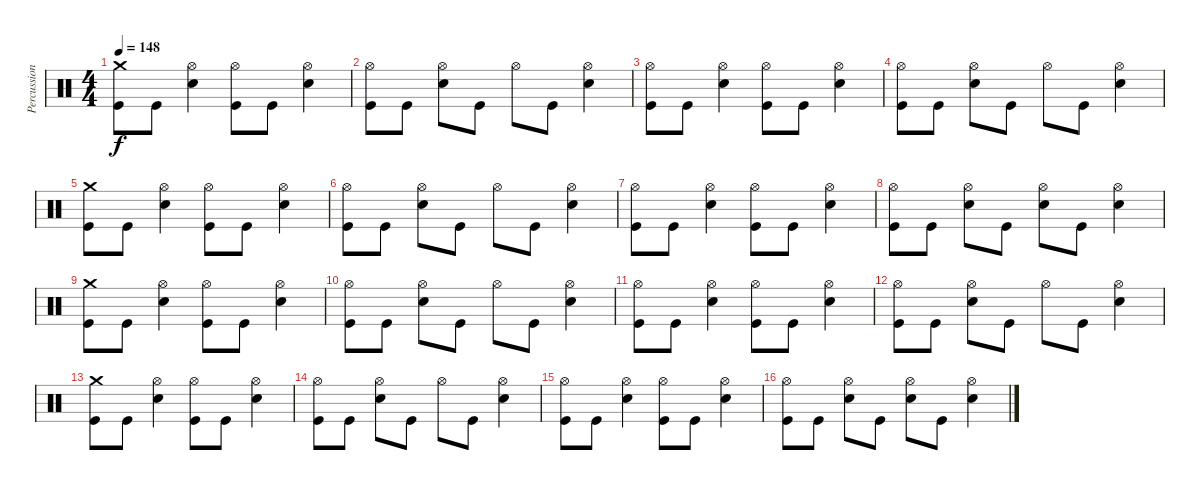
\track ("Percussion" "Percussion") {instrument percussion}
\staff {score}
\articulation defaults
\ts (4 4)
\tempo 148
\clef neutral
\ks c
("Crash medium (hit)" "Kick (hit)").8{dy f} "Kick (hit)".8 ("Hi-Hat (open)" "Electric Snare (hit)").4 ("Hi-Hat (open)" "Kick (hit)").8 "Kick (hit)".8 ("Hi-Hat (open)" "Electric Snare (hit)").4 |
("Hi-Hat (open)" "Kick (hit)").8 "Kick (hit)".8 ("Hi-Hat (open)" "Electric Snare (hit)").8 "Kick (hit)".8 "Hi-Hat (open)".8 "Kick (hit)".8 ("Hi-Hat (open)" "Electric Snare (hit)").4 |
("Hi-Hat (open)" "Kick (hit)").8 "Kick (hit)".8 ("Hi-Hat (open)" "Electric Snare (hit)").4 ("Hi-Hat (open)" "Kick (hit)").8 "Kick (hit)".8 ("Hi-Hat (open)" "Electric Snare (hit)").4 |
("Hi-Hat (open)" "Kick (hit)").8 "Kick (hit)".8 ("Hi-Hat (open)" "Electric Snare (hit)").8 "Kick (hit)".8 "Hi-Hat (open)".8 "Kick (hit)".8 ("Hi-Hat (open)" "Electric Snare (hit)").4 |
("Crash medium (hit)" "Kick (hit)").8 "Kick (hit)".8 ("Hi-Hat (open)" "Electric Snare (hit)").4 ("Hi-Hat (open)" "Kick (hit)").8 "Kick (hit)".8 ("Hi-Hat (open)" "Electric Snare (hit)").4 |
("Hi-Hat (open)" "Kick (hit)").8 "Kick (hit)".8 ("Hi-Hat (open)" "Electric Snare (hit)").8 "Kick (hit)".8 "Hi-Hat (open)".8 "Kick (hit)".8 ("Hi-Hat (open)" "Electric Snare (hit)").4 |
("Hi-Hat (open)" "Kick (hit)").8 "Kick (hit)".8 ("Hi-Hat (open)" "Electric Snare (hit)").4 ("Hi-Hat (open)" "Kick (hit)").8 "Kick (hit)".8 ("Hi-Hat (open)" "Electric Snare (hit)").4 |
("Hi-Hat (open)" "Kick (hit)").8 "Kick (hit)".8 ("Hi-Hat (open)" "Electric Snare (hit)").8 "Kick (hit)".8 ("Hi-Hat (open)" "Electric Snare (hit)").8 "Kick (hit)".8 ("Hi-Hat (open)" "Electric Snare (hit)").4 |
("Crash medium (hit)" "Kick (hit)").8 "Kick (hit)".8 ("Hi-Hat (open)" "Electric Snare (hit)").4 ("Hi-Hat (open)" "Kick (hit)").8 "Kick (hit)".8 ("Hi-Hat (open)" "Electric Snare (hit)").4 |
("Hi-Hat (open)" "Kick (hit)").8 "Kick (hit)".8 ("Hi-Hat (open)" "Electric Snare (hit)").8 "Kick (hit)".8 "Hi-Hat (open)".8 "Kick (hit)".8 ("Hi-Hat (open)" "Electric Snare (hit)").4 |
("Hi-Hat (open)" "Kick (hit)").8 "Kick (hit)".8 ("Hi-Hat (open)" "Electric Snare (hit)").4 ("Hi-Hat (open)" "Kick (hit)").8 "Kick (hit)".8 ("Hi-Hat (open)" "Electric Snare (hit)").4 |
("Hi-Hat (open)" "Kick (hit)").8 "Kick (hit)".8 ("Hi-Hat (open)" "Electric Snare (hit)").8 "Kick (hit)".8 "Hi-Hat (open)".8 "Kick (hit)".8 ("Hi-Hat (open)" "Electric Snare (hit)").4 |
("Crash medium (hit)" "Kick (hit)").8 "Kick (hit)".8 ("Hi-Hat (open)" "Electric Snare (hit)").4 ("Hi-Hat (open)" "Kick (hit)").8 "Kick (hit)".8 ("Hi-Hat (open)" "Electric Snare (hit)").4 |
("Hi-Hat (open)" "Kick (hit)").8 "Kick (hit)".8 ("Hi-Hat (open)" "Electric Snare (hit)").8 "Kick (hit)".8 "Hi-Hat (open)".8 "Kick (hit)".8 ("Hi-Hat (open)" "Electric Snare (hit)").4 |
("Hi-Hat (open)" "Kick (hit)").8 "Kick (hit)".8 ("Hi-Hat (open)" "Electric Snare (hit)").4 ("Hi-Hat (open)" "Kick (hit)").8 "Kick (hit)".8 ("Hi-Hat (open)" "Electric Snare (hit)").4 |
("Hi-Hat (open)" "Kick (hit)").8 "Kick (hit)".8 ("Hi-Hat (open)" "Electric Snare (hit)").8 "Kick (hit)".8 ("Hi-Hat (open)" "Electric Snare (hit)").8 "Kick (hit)".8 ("Hi-Hat (open)" "Electric Snare (hit)").4
